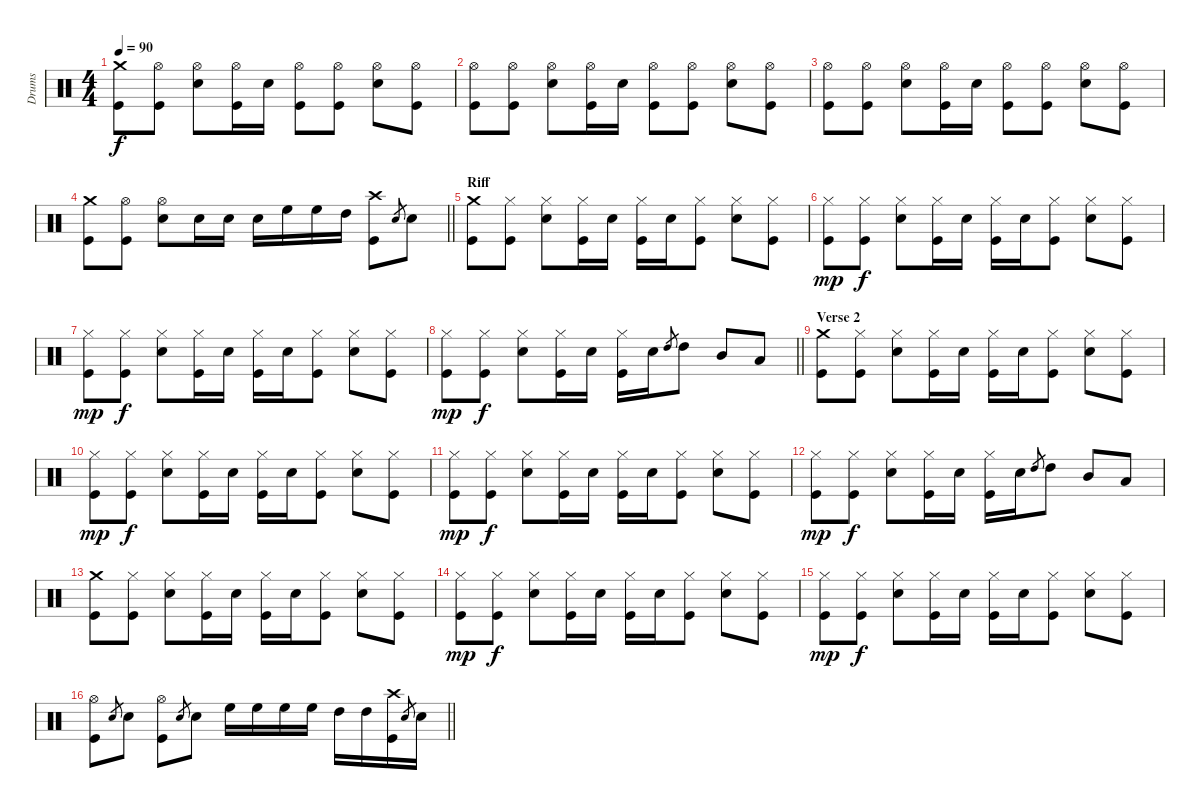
\track ("Drums" "Drums") {instrument percussion}
\staff {score}
\articulation defaults
\ts (4 4)
\tempo 90
\clef neutral
\ks c
("Kick (hit)" "Crash medium (hit)").8{dy f} ("Kick (hit)" "Hi-Hat (open)").8 ("Snare (hit) 2" "Hi-Hat (open)").8 ("Hi-Hat (open)" "Kick (hit)").16 "Snare (hit) 2".16 ("Kick (hit)" "Hi-Hat (open)").8 ("Kick (hit)" "Hi-Hat (open)").8 ("Snare (hit) 2" "Hi-Hat (open)").8 ("Kick (hit)" "Hi-Hat (open)").8 |
("Kick (hit)" "Hi-Hat (open)").8 ("Kick (hit)" "Hi-Hat (open)").8 ("Snare (hit) 2" "Hi-Hat (open)").8 ("Hi-Hat (open)" "Kick (hit)").16 "Snare (hit) 2".16 ("Kick (hit)" "Hi-Hat (open)").8 ("Kick (hit)" "Hi-Hat (open)").8 ("Snare (hit) 2" "Hi-Hat (open)").8 ("Kick (hit)" "Hi-Hat (open)").8 |
("Kick (hit)" "Hi-Hat (open)").8 ("Kick (hit)" "Hi-Hat (open)").8 ("Snare (hit) 2" "Hi-Hat (open)").8 ("Hi-Hat (open)" "Kick (hit)").16 "Snare (hit) 2".16 ("Kick (hit)" "Hi-Hat (open)").8 ("Kick (hit)" "Hi-Hat (open)").8 ("Snare (hit) 2" "Hi-Hat (open)").8 ("Kick (hit)" "Hi-Hat (open)").8 |
\barLineRight lightlight
("Kick (hit)" "Crash medium (hit)").8 ("Kick (hit)" "Hi-Hat (open)").8 ("Snare (hit) 2" "Hi-Hat (open)").8 "Snare (hit) 2".16 "Snare (hit) 2".16 "Snare (hit) 2".16 "High Floor Tom (hit)".16 "High Floor Tom (hit)".16 "High Tom (hit)".16 ("Kick (hit)" "Crash high (hit)").8 "Snare (hit) 2".8{gr} "Snare (hit) 2".8 |
\section ("" "Riff")
("Kick (hit)" "Crash medium (hit)").8 ("Hi-Hat (closed)" "Kick (hit)").8 ("Snare (hit) 2" "Hi-Hat (closed)").8 ("Kick (hit)" "Hi-Hat (closed)").16 "Snare (hit) 2".16 ("Kick (hit)" "Hi-Hat (closed)").16 "Snare (hit) 2".16 ("Kick (hit)" "Hi-Hat (closed)").8 ("Snare (hit) 2" "Hi-Hat (closed)").8 ("Kick (hit)" "Hi-Hat (closed)").8 |
("Kick (hit)" "Hi-Hat (closed)").8{dy mp} ("Hi-Hat (closed)" "Kick (hit)").8{dy f} ("Snare (hit) 2" "Hi-Hat (closed)").8 ("Kick (hit)" "Hi-Hat (closed)").16 "Snare (hit) 2".16 ("Kick (hit)" "Hi-Hat (closed)").16 "Snare (hit) 2".16 ("Kick (hit)" "Hi-Hat (closed)").8 ("Snare (hit) 2" "Hi-Hat (closed)").8 ("Kick (hit)" "Hi-Hat (closed)").8 |
("Kick (hit)" "Hi-Hat (closed)").8{dy mp} ("Hi-Hat (closed)" "Kick (hit)").8{dy f} ("Snare (hit) 2" "Hi-Hat (closed)").8 ("Kick (hit)" "Hi-Hat (closed)").16 "Snare (hit) 2".16 ("Kick (hit)" "Hi-Hat (closed)").16 "Snare (hit) 2".16 ("Kick (hit)" "Hi-Hat (closed)").8 ("Snare (hit) 2" "Hi-Hat (closed)").8 ("Kick (hit)" "Hi-Hat (closed)").8 |
\barLineRight lightlight
("Kick (hit)" "Hi-Hat (closed)").8{dy mp} ("Hi-Hat (closed)" "Kick (hit)").8{dy f} ("Snare (hit) 2" "Hi-Hat (closed)").8 ("Kick (hit)" "Hi-Hat (closed)").16 "Snare (hit) 2".16 ("Kick (hit)" "Hi-Hat (closed)").16 "Snare (hit) 2".16 "High Tom (hit)".8{gr} "High Tom (hit)".8 "Mid Tom (hit)".8 "Low Tom (hit)".8 |
\section ("" "Verse 2")
("Kick (hit)" "Crash medium (hit)").8 ("Hi-Hat (closed)" "Kick (hit)").8 ("Snare (hit) 2" "Hi-Hat (closed)").8 ("Kick (hit)" "Hi-Hat (closed)").16 "Snare (hit) 2".16 ("Kick (hit)" "Hi-Hat (closed)").16 "Snare (hit) 2".16 ("Kick (hit)" "Hi-Hat (closed)").8 ("Snare (hit) 2" "Hi-Hat (closed)").8 ("Kick (hit)" "Hi-Hat (closed)").8 |
("Kick (hit)" "Hi-Hat (closed)").8{dy mp} ("Hi-Hat (closed)" "Kick (hit)").8{dy f} ("Snare (hit) 2" "Hi-Hat (closed)").8 ("Kick (hit)" "Hi-Hat (closed)").16 "Snare (hit) 2".16 ("Kick (hit)" "Hi-Hat (closed)").16 "Snare (hit) 2".16 ("Kick (hit)" "Hi-Hat (closed)").8 ("Snare (hit) 2" "Hi-Hat (closed)").8 ("Kick (hit)" "Hi-Hat (closed)").8 |
("Kick (hit)" "Hi-Hat (closed)").8{dy mp} ("Hi-Hat (closed)" "Kick (hit)").8{dy f} ("Snare (hit) 2" "Hi-Hat (closed)").8 ("Kick (hit)" "Hi-Hat (closed)").16 "Snare (hit) 2".16 ("Kick (hit)" "Hi-Hat (closed)").16 "Snare (hit) 2".16 ("Kick (hit)" "Hi-Hat (closed)").8 ("Snare (hit) 2" "Hi-Hat (closed)").8 ("Kick (hit)" "Hi-Hat (closed)").8 |
("Kick (hit)" "Hi-Hat (closed)").8{dy mp} ("Hi-Hat (closed)" "Kick (hit)").8{dy f} ("Snare (hit) 2" "Hi-Hat (closed)").8 ("Kick (hit)" "Hi-Hat (closed)").16 "Snare (hit) 2".16 ("Kick (hit)" "Hi-Hat (closed)").16 "Snare (hit) 2".16 "High Tom (hit)".8{gr} "High Tom (hit)".8 "Mid Tom (hit)".8 "Low Tom (hit)".8 |
("Kick (hit)" "Crash medium (hit)").8 ("Hi-Hat (closed)" "Kick (hit)").8 ("Snare (hit) 2" "Hi-Hat (closed)").8 ("Kick (hit)" "Hi-Hat (closed)").16 "Snare (hit) 2".16 ("Kick (hit)" "Hi-Hat (closed)").16 "Snare (hit) 2".16 ("Kick (hit)" "Hi-Hat (closed)").8 ("Snare (hit) 2" "Hi-Hat (closed)").8 ("Kick (hit)" "Hi-Hat (closed)").8 |
("Kick (hit)" "Hi-Hat (closed)").8{dy mp} ("Hi-Hat (closed)" "Kick (hit)").8{dy f} ("Snare (hit) 2" "Hi-Hat (closed)").8 ("Kick (hit)" "Hi-Hat (closed)").16 "Snare (hit) 2".16 ("Kick (hit)" "Hi-Hat (closed)").16 "Snare (hit) 2".16 ("Kick (hit)" "Hi-Hat (closed)").8 ("Snare (hit) 2" "Hi-Hat (closed)").8 ("Kick (hit)" "Hi-Hat (closed)").8 |
("Kick (hit)" "Hi-Hat (closed)").8{dy mp} ("Hi-Hat (closed)" "Kick (hit)").8{dy f} ("Snare (hit) 2" "Hi-Hat (closed)").8 ("Kick (hit)" "Hi-Hat (closed)").16 "Snare (hit) 2".16 ("Kick (hit)" "Hi-Hat (closed)").16 "Snare (hit) 2".16 ("Kick (hit)" "Hi-Hat (closed)").8 ("Snare (hit) 2" "Hi-Hat (closed)").8 ("Kick (hit)" "Hi-Hat (closed)").8 |
\barLineRight lightlight
("Kick (hit)" "Hi-Hat (open)").8 "Snare (hit) 2".8{gr} "Snare (hit) 2".8 ("Kick (hit)" "Hi-Hat (open)").8 "Snare (hit) 2".8{gr} "Snare (hit) 2".8 "High Floor Tom (hit)".16 "High Floor Tom (hit)".16 "High Floor Tom (hit)".16 "High Floor Tom (hit)".16 "High Tom (hit)".16 "High Tom (hit)".16 ("Kick (hit)" "Crash high (hit)").16 "Snare (hit) 2".8{gr} "Snare (hit) 2".16
